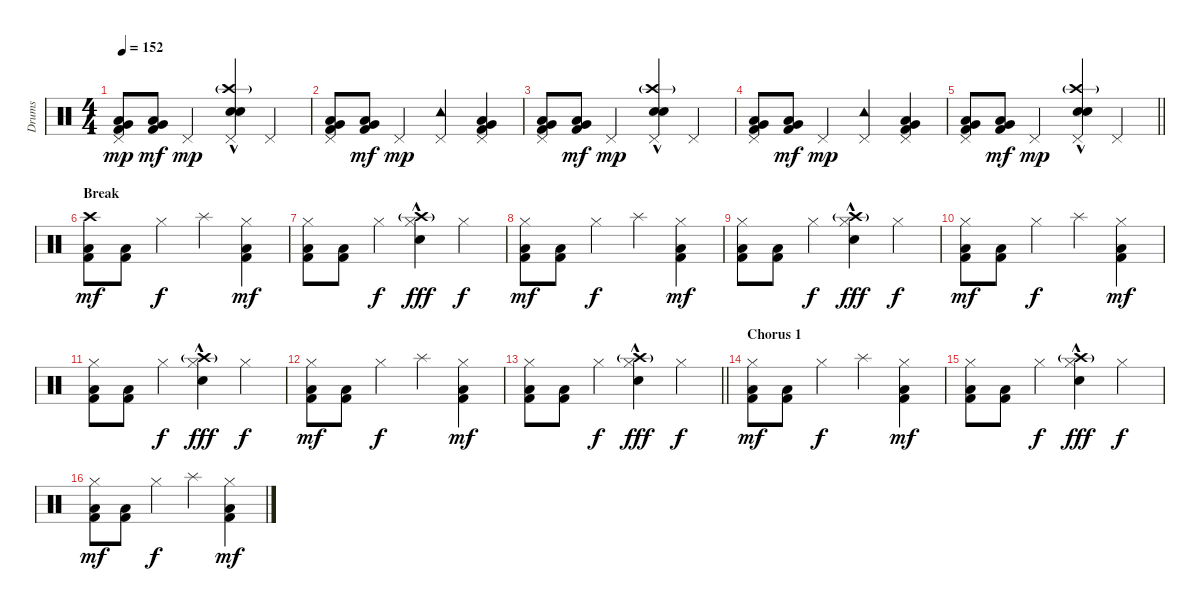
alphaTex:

\track ("Drums" "Drums") {instrument percussion}
\staff {score}
\articulation defaults
\ts (4 4)
\tempo 152
\clef neutral
\ks c
("Very Low Tom (hit)" "Low Floor Tom (hit)" "Pedal Hi-Hat (hit)" "Kick (hit) 2").8{dy mp} ("Very Low Tom (hit)" "Low Floor Tom (hit)" "Kick (hit) 2").8{dy mf} "Pedal Hi-Hat (hit)".4{dy mp} ("Crash high (hit)"{g} "Electric Snare (hit)" "Snare (hit) 2"{hac} "Pedal Hi-Hat (hit)").4 "Pedal Hi-Hat (hit)".4 |
("Very Low Tom (hit)" "Low Floor Tom (hit)" "Pedal Hi-Hat (hit)" "Kick (hit) 2").8 ("Very Low Tom (hit)" "Low Floor Tom (hit)" "Kick (hit) 2").8{dy mf} "Pedal Hi-Hat (hit)".4{dy mp} ("Tambourine (hit)" "Pedal Hi-Hat (hit)").4 ("Very Low Tom (hit)" "Low Floor Tom (hit)" "Pedal Hi-Hat (hit)" "Kick (hit) 2").4 |
("Very Low Tom (hit)" "Low Floor Tom (hit)" "Pedal Hi-Hat (hit)" "Kick (hit) 2").8 ("Very Low Tom (hit)" "Low Floor Tom (hit)" "Kick (hit) 2").8{dy mf} "Pedal Hi-Hat (hit)".4{dy mp} ("Crash high (hit)"{g} "Electric Snare (hit)" "Snare (hit) 2"{hac} "Pedal Hi-Hat (hit)").4 "Pedal Hi-Hat (hit)".4 |
("Very Low Tom (hit)" "Low Floor Tom (hit)" "Pedal Hi-Hat (hit)" "Kick (hit) 2").8 ("Very Low Tom (hit)" "Low Floor Tom (hit)" "Kick (hit) 2").8{dy mf} "Pedal Hi-Hat (hit)".4{dy mp} ("Tambourine (hit)" "Pedal Hi-Hat (hit)").4 ("Very Low Tom (hit)" "Low Floor Tom (hit)" "Pedal Hi-Hat (hit)" "Kick (hit) 2").4 |
\barLineRight lightlight
("Very Low Tom (hit)" "Low Floor Tom (hit)" "Pedal Hi-Hat (hit)" "Kick (hit) 2").8 ("Very Low Tom (hit)" "Low Floor Tom (hit)" "Kick (hit) 2").8{dy mf} "Pedal Hi-Hat (hit)".4{dy mp} ("Crash high (hit)"{g} "Electric Snare (hit)" "Snare (hit) 2"{hac} "Pedal Hi-Hat (hit)").4 "Pedal Hi-Hat (hit)".4 |
\section ("" "Break")
("Crash high (hit)" "Low Floor Tom (hit)" "Kick (hit) 2").8{dy mf} ("Low Floor Tom (hit)" "Kick (hit) 2").8 "Hi-Hat (closed)".4{dy f} "Splash (hit)".4 ("Hi-Hat (closed)" "Low Floor Tom (hit)" "Kick (hit) 2").4{dy mf} |
("Hi-Hat (closed)" "Low Floor Tom (hit)" "Kick (hit) 2").8 ("Low Floor Tom (hit)" "Kick (hit) 2").8 "Hi-Hat (closed)".4{dy f} ("Crash high (hit)"{g} "Hi-Hat (closed)" "Snare (hit) 2"{hac}).4{dy fff} "Hi-Hat (closed)".4{dy f} |
("Hi-Hat (closed)" "Low Floor Tom (hit)" "Kick (hit) 2").8{dy mf} ("Low Floor Tom (hit)" "Kick (hit) 2").8 "Hi-Hat (closed)".4{dy f} "Splash (hit)".4 ("Hi-Hat (closed)" "Low Floor Tom (hit)" "Kick (hit) 2").4{dy mf} |
("Hi-Hat (closed)" "Low Floor Tom (hit)" "Kick (hit) 2").8 ("Low Floor Tom (hit)" "Kick (hit) 2").8 "Hi-Hat (closed)".4{dy f} ("Crash high (hit)"{g} "Hi-Hat (closed)" "Snare (hit) 2"{hac}).4{dy fff} "Hi-Hat (closed)".4{dy f} |
("Hi-Hat (closed)" "Low Floor Tom (hit)" "Kick (hit) 2").8{dy mf} ("Low Floor Tom (hit)" "Kick (hit) 2").8 "Hi-Hat (closed)".4{dy f} "Splash (hit)".4 ("Hi-Hat (closed)" "Low Floor Tom (hit)" "Kick (hit) 2").4{dy mf} |
("Hi-Hat (closed)" "Low Floor Tom (hit)" "Kick (hit) 2").8 ("Low Floor Tom (hit)" "Kick (hit) 2").8 "Hi-Hat (closed)".4{dy f} ("Crash high (hit)"{g} "Hi-Hat (closed)" "Snare (hit) 2"{hac}).4{dy fff} "Hi-Hat (closed)".4{dy f} |
("Hi-Hat (closed)" "Low Floor Tom (hit)" "Kick (hit) 2").8{dy mf} ("Low Floor Tom (hit)" "Kick (hit) 2").8 "Hi-Hat (closed)".4{dy f} "Splash (hit)".4 ("Hi-Hat (closed)" "Low Floor Tom (hit)" "Kick (hit) 2").4{dy mf} |
\barLineRight lightlight
("Hi-Hat (closed)" "Low Floor Tom (hit)" "Kick (hit) 2").8 ("Low Floor Tom (hit)" "Kick (hit) 2").8 "Hi-Hat (closed)".4{dy f} ("Crash high (hit)"{g} "Hi-Hat (closed)" "Snare (hit) 2"{hac}).4{dy fff} "Hi-Hat (closed)".4{dy f} |
\section ("" "Chorus 1")
("Hi-Hat (closed)" "Low Floor Tom (hit)" "Kick (hit) 2").8{dy mf} ("Low Floor Tom (hit)" "Kick (hit) 2").8 "Hi-Hat (closed)".4{dy f} "Splash (hit)".4 ("Hi-Hat (closed)" "Low Floor Tom (hit)" "Kick (hit) 2").4{dy mf} |
("Hi-Hat (closed)" "Low Floor Tom (hit)" "Kick (hit) 2").8 ("Low Floor Tom (hit)" "Kick (hit) 2").8 "Hi-Hat (closed)".4{dy f} ("Crash high (hit)"{g} "Hi-Hat (closed)" "Snare (hit) 2"{hac}).4{dy fff} "Hi-Hat (closed)".4{dy f} |
("Hi-Hat (closed)" "Low Floor Tom (hit)" "Kick (hit) 2").8{dy mf} ("Low Floor Tom (hit)" "Kick (hit) 2").8 "Hi-Hat (closed)".4{dy f} "Splash (hit)".4 ("Hi-Hat (closed)" "Low Floor Tom (hit)" "Kick (hit) 2").4{dy mf}
